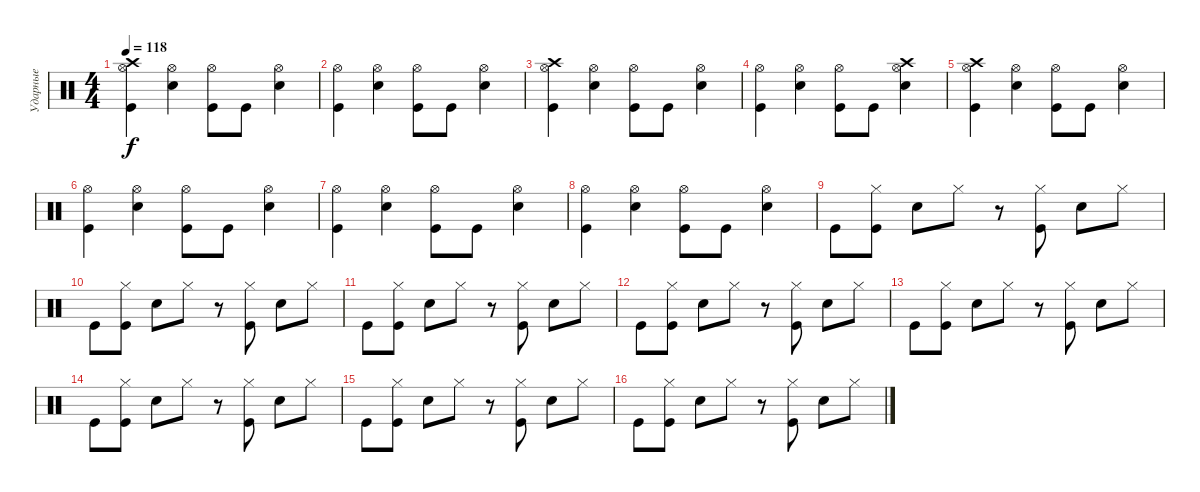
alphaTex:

\track ("Ударные" "Ударные") {instrument percussion}
\staff {score}
\articulation defaults
\ts (4 4)
\tempo 118
\clef neutral
\ks c
("Hi-Hat (open)" "Crash high (hit)" "Kick (hit)").4{dy f} ("Hi-Hat (open)" "Snare (hit) 2").4 ("Hi-Hat (open)" "Kick (hit)").8 "Kick (hit)".8 ("Hi-Hat (open)" "Snare (hit) 2").4 |
("Hi-Hat (open)" "Kick (hit)").4 ("Hi-Hat (open)" "Snare (hit) 2").4 ("Hi-Hat (open)" "Kick (hit)").8 "Kick (hit)".8 ("Hi-Hat (open)" "Snare (hit) 2").4 |
("Hi-Hat (open)" "Crash high (hit)" "Kick (hit)").4 ("Hi-Hat (open)" "Snare (hit) 2").4 ("Hi-Hat (open)" "Kick (hit)").8 "Kick (hit)".8 ("Hi-Hat (open)" "Snare (hit) 2").4 |
("Hi-Hat (open)" "Kick (hit)").4 ("Hi-Hat (open)" "Snare (hit) 2").4 ("Hi-Hat (open)" "Kick (hit)").8 "Kick (hit)".8 ("Hi-Hat (open)" "Crash high (hit)" "Snare (hit) 2").4 |
("Hi-Hat (open)" "Crash high (hit)" "Kick (hit)").4 ("Hi-Hat (open)" "Snare (hit) 2").4 ("Hi-Hat (open)" "Kick (hit)").8 "Kick (hit)".8 ("Hi-Hat (open)" "Snare (hit) 2").4 |
("Hi-Hat (open)" "Kick (hit)").4 ("Hi-Hat (open)" "Snare (hit) 2").4 ("Hi-Hat (open)" "Kick (hit)").8 "Kick (hit)".8 ("Hi-Hat (open)" "Snare (hit) 2").4 |
("Hi-Hat (open)" "Kick (hit)").4 ("Hi-Hat (open)" "Snare (hit) 2").4 ("Hi-Hat (open)" "Kick (hit)").8 "Kick (hit)".8 ("Hi-Hat (open)" "Snare (hit) 2").4 |
("Hi-Hat (open)" "Kick (hit)").4 ("Hi-Hat (open)" "Snare (hit) 2").4 ("Hi-Hat (open)" "Kick (hit)").8 "Kick (hit)".8 ("Hi-Hat (open)" "Snare (hit) 2").4 |
"Kick (hit)".8 ("Hi-Hat (closed)" "Kick (hit)").8 "Snare (hit) 2".8 "Hi-Hat (closed)".8 r.8 ("Hi-Hat (closed)" "Kick (hit)").8 "Snare (hit) 2".8 "Hi-Hat (closed)".8 |
"Kick (hit)".8 ("Hi-Hat (closed)" "Kick (hit)").8 "Snare (hit) 2".8 "Hi-Hat (closed)".8 r.8 ("Hi-Hat (closed)" "Kick (hit)").8 "Snare (hit) 2".8 "Hi-Hat (closed)".8 |
"Kick (hit)".8 ("Hi-Hat (closed)" "Kick (hit)").8 "Snare (hit) 2".8 "Hi-Hat (closed)".8 r.8 ("Hi-Hat (closed)" "Kick (hit)").8 "Snare (hit) 2".8 "Hi-Hat (closed)".8 |
"Kick (hit)".8 ("Hi-Hat (closed)" "Kick (hit)").8 "Snare (hit) 2".8 "Hi-Hat (closed)".8 r.8 ("Hi-Hat (closed)" "Kick (hit)").8 "Snare (hit) 2".8 "Hi-Hat (closed)".8 |
"Kick (hit)".8 ("Hi-Hat (closed)" "Kick (hit)").8 "Snare (hit) 2".8 "Hi-Hat (closed)".8 r.8 ("Hi-Hat (closed)" "Kick (hit)").8 "Snare (hit) 2".8 "Hi-Hat (closed)".8 |
"Kick (hit)".8 ("Hi-Hat (closed)" "Kick (hit)").8 "Snare (hit) 2".8 "Hi-Hat (closed)".8 r.8 ("Hi-Hat (closed)" "Kick (hit)").8 "Snare (hit) 2".8 "Hi-Hat (closed)".8 |
"Kick (hit)".8 ("Hi-Hat (closed)" "Kick (hit)").8 "Snare (hit) 2".8 "Hi-Hat (closed)".8 r.8 ("Hi-Hat (closed)" "Kick (hit)").8 "Snare (hit) 2".8 "Hi-Hat (closed)".8 |
"Kick (hit)".8 ("Hi-Hat (closed)" "Kick (hit)").8 "Snare (hit) 2".8 "Hi-Hat (closed)".8 r.8 ("Hi-Hat (closed)" "Kick (hit)").8 "Snare (hit) 2".8 "Hi-Hat (closed)".8
